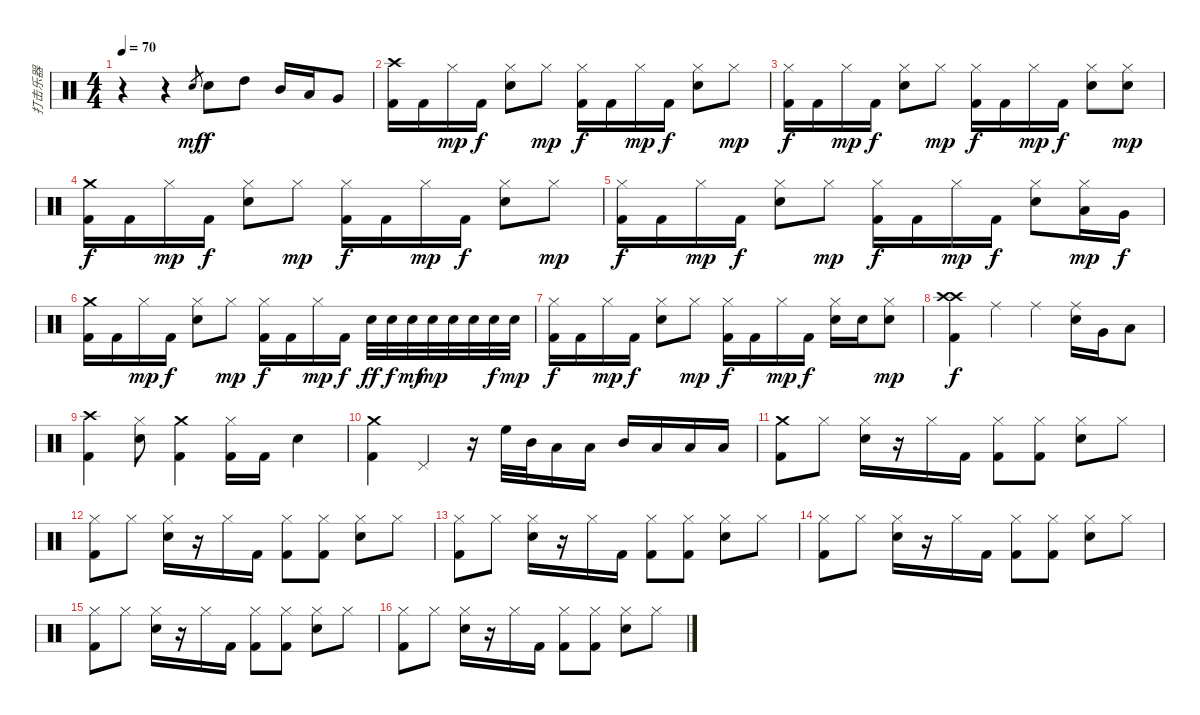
\track ("打击乐器" "打击乐器") {instrument percussion}
\staff {score}
\articulation defaults
\ts (4 4)
\tempo 70
\clef neutral
\ks c
r.4{dy f} r.4 "Electric Snare (hit)".8{gr dy mf} "Electric Snare (hit)".8{dy f} "High Tom (hit)".8 "Mid Tom (hit)".16 "Low Tom (hit)".16 "Very Low Tom (hit)".8 |
("Crash high (hit)" "Kick (hit) 2").16 "Kick (hit) 2".16 "Hi-Hat (closed)".16{dy mp} "Kick (hit) 2".16{dy f} ("Hi-Hat (closed)" "Electric Snare (hit)").8 "Hi-Hat (closed)".8{dy mp} ("Hi-Hat (closed)" "Kick (hit) 2").16{dy f} "Kick (hit) 2".16 "Hi-Hat (closed)".16{dy mp} "Kick (hit) 2".16{dy f} ("Hi-Hat (closed)" "Electric Snare (hit)").8 "Hi-Hat (closed)".8{dy mp} |
("Hi-Hat (closed)" "Kick (hit) 2").16{dy f} "Kick (hit) 2".16 "Hi-Hat (closed)".16{dy mp} "Kick (hit) 2".16{dy f} ("Hi-Hat (closed)" "Electric Snare (hit)").8 "Hi-Hat (closed)".8{dy mp} ("Hi-Hat (closed)" "Kick (hit) 2").16{dy f} "Kick (hit) 2".16 "Hi-Hat (closed)".16{dy mp} "Kick (hit) 2".16{dy f} ("Hi-Hat (closed)" "Electric Snare (hit)").8 ("Hi-Hat (closed)" "Electric Snare (hit)").8{dy mp} |
("Crash medium (hit)" "Kick (hit) 2").16{dy f} "Kick (hit) 2".16 "Hi-Hat (closed)".16{dy mp} "Kick (hit) 2".16{dy f} ("Hi-Hat (closed)" "Electric Snare (hit)").8 "Hi-Hat (closed)".8{dy mp} ("Hi-Hat (closed)" "Kick (hit) 2").16{dy f} "Kick (hit) 2".16 "Hi-Hat (closed)".16{dy mp} "Kick (hit) 2".16{dy f} ("Hi-Hat (closed)" "Electric Snare (hit)").8 "Hi-Hat (closed)".8{dy mp} |
("Hi-Hat (closed)" "Kick (hit) 2").16{dy f} "Kick (hit) 2".16 "Hi-Hat (closed)".16{dy mp} "Kick (hit) 2".16{dy f} ("Hi-Hat (closed)" "Electric Snare (hit)").8 "Hi-Hat (closed)".8{dy mp} ("Hi-Hat (closed)" "Kick (hit) 2").16{dy f} "Kick (hit) 2".16 "Hi-Hat (closed)".16{dy mp} "Kick (hit) 2".16{dy f} ("Hi-Hat (closed)" "Electric Snare (hit)").8 ("Hi-Hat (closed)" "Low Tom (hit)").16{dy mp} "Very Low Tom (hit)".16{dy f} |
("Crash medium (hit)" "Kick (hit) 2").16 "Kick (hit) 2".16 "Hi-Hat (closed)".16{dy mp} "Kick (hit) 2".16{dy f} ("Hi-Hat (closed)" "Electric Snare (hit)").8 "Hi-Hat (closed)".8{dy mp} ("Hi-Hat (closed)" "Kick (hit) 2").16{dy f} "Kick (hit) 2".16 "Hi-Hat (closed)".16{dy mp} "Kick (hit) 2".16{dy f} "Electric Snare (hit)".32{dy ff} "Electric Snare (hit)".32{dy f} "Electric Snare (hit)".32{dy mf} "Electric Snare (hit)".32{dy mp} "Electric Snare (hit)".32 "Electric Snare (hit)".32 "Electric Snare (hit)".32{dy f} "Electric Snare (hit)".32{dy mp} |
("Hi-Hat (closed)" "Kick (hit) 2").16{dy f} "Kick (hit) 2".16 "Hi-Hat (closed)".16{dy mp} "Kick (hit) 2".16{dy f} ("Hi-Hat (closed)" "Electric Snare (hit)").8 "Hi-Hat (closed)".8{dy mp} ("Hi-Hat (closed)" "Kick (hit) 2").16{dy f} "Kick (hit) 2".16 "Hi-Hat (closed)".16{dy mp} "Kick (hit) 2".16{dy f} ("Hi-Hat (closed)" "Electric Snare (hit)").16 "Electric Snare (hit)".16 ("Hi-Hat (closed)" "Electric Snare (hit)").8{dy mp} |
("Crash high (hit)" "Crash high (hit)" "Kick (hit) 2").4{dy f} "Ride (middle)".4 "Ride (middle)".4 ("Ride (middle)" "Electric Snare (hit)").16 "Very Low Tom (hit)".16 "Low Floor Tom (hit)".8 |
("Crash high (hit)" "Kick (hit) 2").4 ("Hi-Hat (closed)" "Electric Snare (hit)").8 ("Crash medium (hit)" "Kick (hit) 2").4 ("Hi-Hat (closed)" "Kick (hit) 2").16 "Kick (hit) 2".16 "Electric Snare (hit)".4 |
("Crash medium (hit)" "Kick (hit) 2").4 "Pedal Hi-Hat (hit)".4 r.16 "High Floor Tom (hit)".32 "Mid Tom (hit)".32 "Low Tom (hit)".16 "Low Floor Tom (hit)".16 "Mid Tom (hit)".16 "Low Tom (hit)".16 "Low Floor Tom (hit)".16 "Low Floor Tom (hit)".16 |
("Crash medium (hit)" "Kick (hit) 2").8 "Hi-Hat (closed)".8 ("Hi-Hat (closed)" "Electric Snare (hit)").16 r.16 "Hi-Hat (closed)".16 "Kick (hit) 2".16 ("Hi-Hat (closed)" "Kick (hit) 2").8 ("Hi-Hat (closed)" "Kick (hit) 2").8 ("Hi-Hat (closed)" "Electric Snare (hit)").8 "Hi-Hat (closed)".8 |
("Hi-Hat (closed)" "Kick (hit) 2").8 "Hi-Hat (closed)".8 ("Hi-Hat (closed)" "Electric Snare (hit)").16 r.16 "Hi-Hat (closed)".16 "Kick (hit) 2".16 ("Hi-Hat (closed)" "Kick (hit) 2").8 ("Hi-Hat (closed)" "Kick (hit) 2").8 ("Hi-Hat (closed)" "Electric Snare (hit)").8 "Hi-Hat (closed)".8 |
("Hi-Hat (closed)" "Kick (hit) 2").8 "Hi-Hat (closed)".8 ("Hi-Hat (closed)" "Electric Snare (hit)").16 r.16 "Hi-Hat (closed)".16 "Kick (hit) 2".16 ("Hi-Hat (closed)" "Kick (hit) 2").8 ("Hi-Hat (closed)" "Kick (hit) 2").8 ("Hi-Hat (closed)" "Electric Snare (hit)").8 "Hi-Hat (closed)".8 |
("Hi-Hat (closed)" "Kick (hit) 2").8 "Hi-Hat (closed)".8 ("Hi-Hat (closed)" "Electric Snare (hit)").16 r.16 "Hi-Hat (closed)".16 "Kick (hit) 2".16 ("Hi-Hat (closed)" "Kick (hit) 2").8 ("Hi-Hat (closed)" "Kick (hit) 2").8 ("Hi-Hat (closed)" "Electric Snare (hit)").8 "Hi-Hat (closed)".8 |
("Hi-Hat (closed)" "Kick (hit) 2").8 "Hi-Hat (closed)".8 ("Hi-Hat (closed)" "Electric Snare (hit)").16 r.16 "Hi-Hat (closed)".16 "Kick (hit) 2".16 ("Hi-Hat (closed)" "Kick (hit) 2").8 ("Hi-Hat (closed)" "Kick (hit) 2").8 ("Hi-Hat (closed)" "Electric Snare (hit)").8 "Hi-Hat (closed)".8 |
("Hi-Hat (closed)" "Kick (hit) 2").8 "Hi-Hat (closed)".8 ("Hi-Hat (closed)" "Electric Snare (hit)").16 r.16 "Hi-Hat (closed)".16 "Kick (hit) 2".16 ("Hi-Hat (closed)" "Kick (hit) 2").8 ("Hi-Hat (closed)" "Kick (hit) 2").8 ("Hi-Hat (closed)" "Electric Snare (hit)").8 "Hi-Hat (closed)".8
